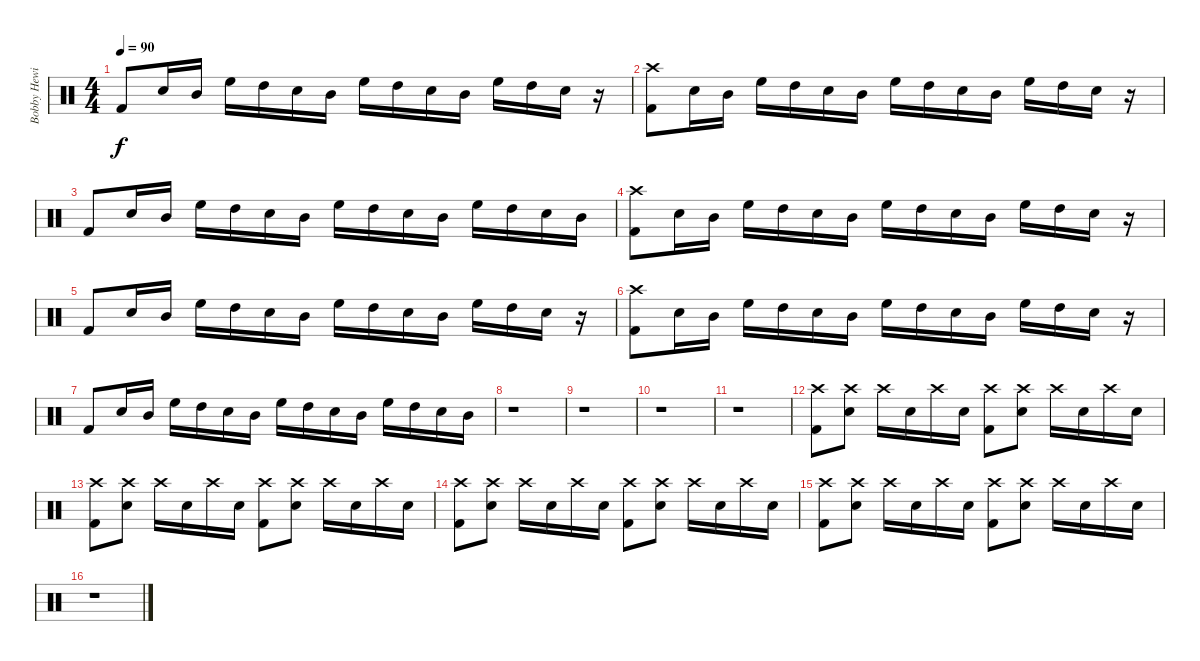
\track ("Bobby Hewitt (Drums)" "Bobby Hewi") {instrument percussion}
\staff {score}
\articulation defaults
\ts (4 4)
\tempo 90
\clef neutral
\ks c "Kick (hit) 2".8{dy f} "Electric Snare (hit)".16 "Mid Tom (hit)".16 "High Floor Tom (hit)".16 "High Tom (hit)".16 "Electric Snare (hit)".16 "Mid Tom (hit)".16 "High Floor Tom (hit)".16 "High Tom (hit)".16 "Electric Snare (hit)".16 "Mid Tom (hit)".16 "High Floor Tom (hit)".16 "High Tom (hit)".16 "Electric Snare (hit)".16
r.16 |
("Crash high (hit)" "Kick (hit) 2").8 "Electric Snare (hit)".16 "Mid Tom (hit)".16 "High Floor Tom (hit)".16 "High Tom (hit)".16 "Electric Snare (hit)".16 "Mid Tom (hit)".16 "High Floor Tom (hit)".16 "High Tom (hit)".16 "Electric Snare (hit)".16 "Mid Tom (hit)".16 "High Floor Tom (hit)".16 "High Tom (hit)".16 "Electric Snare (hit)".16 r.16 |
"Kick (hit) 2".8 "Electric Snare (hit)".16 "Mid Tom (hit)".16 "High Floor Tom (hit)".16 "High Tom (hit)".16 "Electric Snare (hit)".16 "Mid Tom (hit)".16 "High Floor Tom (hit)".16 "High Tom (hit)".16 "Electric Snare (hit)".16 "Mid Tom (hit)".16 "High Floor Tom (hit)".16 "High Tom (hit)".16 "Electric Snare (hit)".16 "Mid Tom (hit)".16 |
("Crash high (hit)" "Kick (hit) 2").8 "Electric Snare (hit)".16 "Mid Tom (hit)".16 "High Floor Tom (hit)".16 "High Tom (hit)".16 "Electric Snare (hit)".16 "Mid Tom (hit)".16 "High Floor Tom (hit)".16 "High Tom (hit)".16 "Electric Snare (hit)".16 "Mid Tom (hit)".16 "High Floor Tom (hit)".16 "High Tom (hit)".16 "Electric Snare (hit)".16 r.16 |
"Kick (hit) 2".8 "Electric Snare (hit)".16 "Mid Tom (hit)".16 "High Floor Tom (hit)".16 "High Tom (hit)".16 "Electric Snare (hit)".16 "Mid Tom (hit)".16 "High Floor Tom (hit)".16 "High Tom (hit)".16 "Electric Snare (hit)".16 "Mid Tom (hit)".16 "High Floor Tom (hit)".16 "High Tom (hit)".16 "Electric Snare (hit)".16 r.16 |
("Crash high (hit)" "Kick (hit) 2").8 "Electric Snare (hit)".16 "Mid Tom (hit)".16 "High Floor Tom (hit)".16 "High Tom (hit)".16 "Electric Snare (hit)".16 "Mid Tom (hit)".16 "High Floor Tom (hit)".16 "High Tom (hit)".16 "Electric Snare (hit)".16 "Mid Tom (hit)".16 "High Floor Tom (hit)".16 "High Tom (hit)".16 "Electric Snare (hit)".16 r.16 |
"Kick (hit) 2".8 "Electric Snare (hit)".16 "Mid Tom (hit)".16 "High Floor Tom (hit)".16 "High Tom (hit)".16 "Electric Snare (hit)".16 "Mid Tom (hit)".16 "High Floor Tom (hit)".16 "High Tom (hit)".16 "Electric Snare (hit)".16 "Mid Tom (hit)".16 "High Floor Tom (hit)".16 "High Tom (hit)".16 "Electric Snare (hit)".16 "Mid Tom (hit)".16 |
r.1 |
r.1 |
r.1 |
r.1 |
("Crash high (hit)" "Kick (hit) 2").8 ("Crash high (hit)" "Electric Snare (hit)").8 "Crash high (hit)".16 "Electric Snare (hit)".16 "Crash high (hit)".16 "Electric Snare (hit)".16 ("Crash high (hit)" "Kick (hit) 2").8 ("Crash high (hit)" "Electric Snare (hit)").8 "Crash high (hit)".16 "Electric Snare (hit)".16 "Crash high (hit)".16 "Electric Snare (hit)".16 |
("Crash high (hit)" "Kick (hit) 2").8 ("Crash high (hit)" "Electric Snare (hit)").8 "Crash high (hit)".16 "Electric Snare (hit)".16 "Crash high (hit)".16 "Electric Snare (hit)".16 ("Crash high (hit)" "Kick (hit) 2").8 ("Crash high (hit)" "Electric Snare (hit)").8 "Crash high (hit)".16 "Electric Snare (hit)".16 "Crash high (hit)".16 "Electric Snare (hit)".16 |
("Crash high (hit)" "Kick (hit) 2").8 ("Crash high (hit)" "Electric Snare (hit)").8 "Crash high (hit)".16 "Electric Snare (hit)".16 "Crash high (hit)".16 "Electric Snare (hit)".16 ("Crash high (hit)" "Kick (hit) 2").8 ("Crash high (hit)" "Electric Snare (hit)").8 "Crash high (hit)".16 "Electric Snare (hit)".16 "Crash high (hit)".16 "Electric Snare (hit)".16 |
("Crash high (hit)" "Kick (hit) 2").8 ("Crash high (hit)" "Electric Snare (hit)").8 "Crash high (hit)".16 "Electric Snare (hit)".16 "Crash high (hit)".16 "Electric Snare (hit)".16 ("Crash high (hit)" "Kick (hit) 2").8 ("Crash high (hit)" "Electric Snare (hit)").8 "Crash high (hit)".16 "Electric Snare (hit)".16 "Crash high (hit)".16 "Electric Snare (hit)".16 |
r.1
